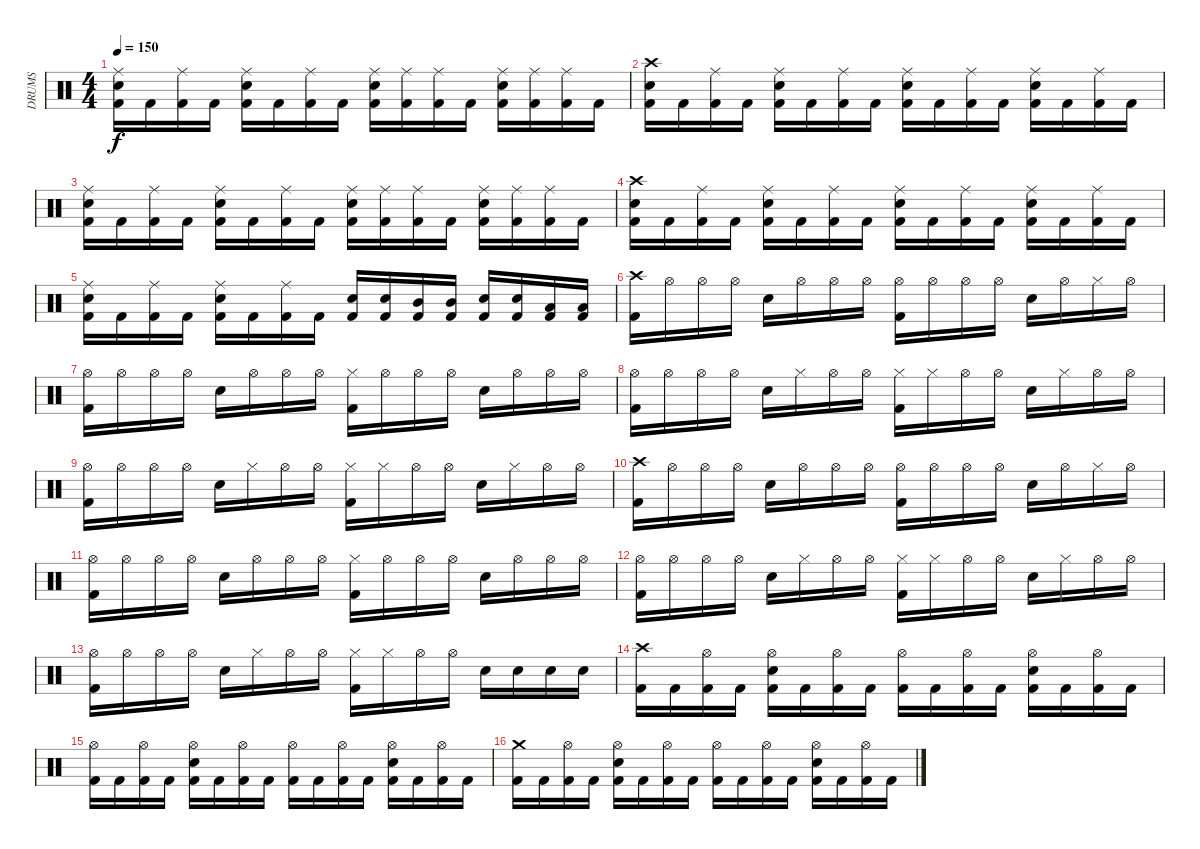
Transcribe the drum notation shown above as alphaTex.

\track ("DRUMS" "DRUMS") {instrument percussion}
\staff {score}
\articulation defaults
\ts (4 4)
\tempo 150
\clef neutral
\ks c
("Kick (hit) 2" "Snare (hit) 2" "Ride (middle)").16{dy f} "Kick (hit) 2".16 ("Kick (hit) 2" "Ride (middle)").16 "Kick (hit) 2".16 ("Kick (hit) 2" "Snare (hit) 2" "Ride (middle)").16 "Kick (hit) 2".16 ("Kick (hit) 2" "Ride (middle)").16 "Kick (hit) 2".16 ("Kick (hit) 2" "Snare (hit) 2" "Ride (middle)").16 ("Kick (hit) 2" "Ride (middle)").16 ("Kick (hit) 2" "Ride (middle)").16 "Kick (hit) 2".16 ("Kick (hit) 2" "Snare (hit) 2" "Ride (middle)").16 ("Kick (hit) 2" "Ride (middle)").16 ("Kick (hit) 2" "Ride (middle)").16 "Kick (hit) 2".16 |
("Kick (hit) 2" "Snare (hit) 2" "Crash high (hit)").16 "Kick (hit) 2".16 ("Kick (hit) 2" "Ride (middle)").16 "Kick (hit) 2".16 ("Kick (hit) 2" "Snare (hit) 2" "Ride (middle)").16 "Kick (hit) 2".16 ("Kick (hit) 2" "Ride (middle)").16 "Kick (hit) 2".16 ("Kick (hit) 2" "Snare (hit) 2" "Ride (middle)").16 "Kick (hit) 2".16 ("Kick (hit) 2" "Ride (middle)").16 "Kick (hit) 2".16 ("Kick (hit) 2" "Snare (hit) 2" "Ride (middle)").16 "Kick (hit) 2".16 ("Kick (hit) 2" "Ride (middle)").16 "Kick (hit) 2".16 |
("Kick (hit) 2" "Snare (hit) 2" "Ride (middle)").16 "Kick (hit) 2".16 ("Kick (hit) 2" "Ride (middle)").16 "Kick (hit) 2".16 ("Kick (hit) 2" "Snare (hit) 2" "Ride (middle)").16 "Kick (hit) 2".16 ("Kick (hit) 2" "Ride (middle)").16 "Kick (hit) 2".16 ("Kick (hit) 2" "Snare (hit) 2" "Ride (middle)").16 ("Kick (hit) 2" "Ride (middle)").16 ("Kick (hit) 2" "Ride (middle)").16 "Kick (hit) 2".16 ("Kick (hit) 2" "Snare (hit) 2" "Ride (middle)").16 ("Kick (hit) 2" "Ride (middle)").16 ("Kick (hit) 2" "Ride (middle)").16 "Kick (hit) 2".16 |
("Kick (hit) 2" "Snare (hit) 2" "Crash high (hit)").16 "Kick (hit) 2".16 ("Kick (hit) 2" "Ride (middle)").16 "Kick (hit) 2".16 ("Kick (hit) 2" "Snare (hit) 2" "Ride (middle)").16 "Kick (hit) 2".16 ("Kick (hit) 2" "Ride (middle)").16 "Kick (hit) 2".16 ("Kick (hit) 2" "Snare (hit) 2" "Ride (middle)").16 "Kick (hit) 2".16 ("Kick (hit) 2" "Ride (middle)").16 "Kick (hit) 2".16 ("Kick (hit) 2" "Snare (hit) 2" "Ride (middle)").16 "Kick (hit) 2".16 ("Kick (hit) 2" "Ride (middle)").16 "Kick (hit) 2".16 |
("Kick (hit) 2" "Snare (hit) 2" "Ride (middle)").16 "Kick (hit) 2".16 ("Kick (hit) 2" "Ride (middle)").16 "Kick (hit) 2".16 ("Kick (hit) 2" "Snare (hit) 2" "Ride (middle)").16 "Kick (hit) 2".16 ("Kick (hit) 2" "Ride (middle)").16 "Kick (hit) 2".16 ("Kick (hit) 2" "Snare (hit) 2").16 ("Kick (hit) 2" "Snare (hit) 2").16 ("Kick (hit) 2" "Mid Tom (hit)").16 ("Kick (hit) 2" "Mid Tom (hit)").16 ("Kick (hit) 2" "Snare (hit) 2").16 ("Kick (hit) 2" "Snare (hit) 2").16 ("Kick (hit) 2" "Low Tom (hit)").16 ("Kick (hit) 2" "Low Tom (hit)").16 |
("Kick (hit) 2" "Crash high (hit)").16 "Hi-Hat (open)".16 "Hi-Hat (open)".16 "Hi-Hat (open)".16 "Snare (hit) 2".16 "Hi-Hat (open)".16 "Hi-Hat (open)".16 "Hi-Hat (open)".16 ("Kick (hit) 2" "Hi-Hat (open)").16 "Hi-Hat (open)".16 "Hi-Hat (open)".16 "Hi-Hat (open)".16 "Snare (hit) 2".16 "Hi-Hat (open)".16 "Hi-Hat (closed)".16 "Hi-Hat (open)".16 |
("Kick (hit) 2" "Hi-Hat (open)").16 "Hi-Hat (open)".16 "Hi-Hat (open)".16 "Hi-Hat (open)".16 "Snare (hit) 2".16 "Hi-Hat (open)".16 "Hi-Hat (open)".16 "Hi-Hat (open)".16 ("Kick (hit) 2" "Hi-Hat (closed)").16 "Hi-Hat (open)".16 "Hi-Hat (open)".16 "Hi-Hat (open)".16 "Snare (hit) 2".16 "Hi-Hat (open)".16 "Hi-Hat (open)".16 "Hi-Hat (open)".16 |
("Kick (hit) 2" "Hi-Hat (open)").16 "Hi-Hat (open)".16 "Hi-Hat (open)".16 "Hi-Hat (open)".16 "Snare (hit) 2".16 "Hi-Hat (closed)".16 "Hi-Hat (open)".16 "Hi-Hat (open)".16 ("Kick (hit) 2" "Hi-Hat (closed)").16 "Hi-Hat (closed)".16 "Hi-Hat (open)".16 "Hi-Hat (open)".16 "Snare (hit) 2".16 "Hi-Hat (closed)".16 "Hi-Hat (open)".16 "Hi-Hat (open)".16 |
("Kick (hit) 2" "Hi-Hat (open)").16 "Hi-Hat (open)".16 "Hi-Hat (open)".16 "Hi-Hat (open)".16 "Snare (hit) 2".16 "Hi-Hat (closed)".16 "Hi-Hat (open)".16 "Hi-Hat (open)".16 ("Kick (hit) 2" "Hi-Hat (closed)").16 "Hi-Hat (closed)".16 "Hi-Hat (open)".16 "Hi-Hat (open)".16 "Snare (hit) 2".16 "Hi-Hat (closed)".16 "Hi-Hat (open)".16 "Hi-Hat (open)".16 |
("Kick (hit) 2" "Crash high (hit)").16 "Hi-Hat (open)".16 "Hi-Hat (open)".16 "Hi-Hat (open)".16 "Snare (hit) 2".16 "Hi-Hat (open)".16 "Hi-Hat (open)".16 "Hi-Hat (open)".16 ("Kick (hit) 2" "Hi-Hat (open)").16 "Hi-Hat (open)".16 "Hi-Hat (open)".16 "Hi-Hat (open)".16 "Snare (hit) 2".16 "Hi-Hat (open)".16 "Hi-Hat (closed)".16 "Hi-Hat (open)".16 |
("Kick (hit) 2" "Hi-Hat (open)").16 "Hi-Hat (open)".16 "Hi-Hat (open)".16 "Hi-Hat (open)".16 "Snare (hit) 2".16 "Hi-Hat (open)".16 "Hi-Hat (open)".16 "Hi-Hat (open)".16 ("Kick (hit) 2" "Hi-Hat (closed)").16 "Hi-Hat (open)".16 "Hi-Hat (open)".16 "Hi-Hat (open)".16 "Snare (hit) 2".16 "Hi-Hat (open)".16 "Hi-Hat (open)".16 "Hi-Hat (open)".16 |
("Kick (hit) 2" "Hi-Hat (open)").16 "Hi-Hat (open)".16 "Hi-Hat (open)".16 "Hi-Hat (open)".16 "Snare (hit) 2".16 "Hi-Hat (closed)".16 "Hi-Hat (open)".16 "Hi-Hat (open)".16 ("Kick (hit) 2" "Hi-Hat (closed)").16 "Hi-Hat (closed)".16 "Hi-Hat (open)".16 "Hi-Hat (open)".16 "Snare (hit) 2".16 "Hi-Hat (closed)".16 "Hi-Hat (open)".16 "Hi-Hat (open)".16 |
("Kick (hit) 2" "Hi-Hat (open)").16 "Hi-Hat (open)".16 "Hi-Hat (open)".16 "Hi-Hat (open)".16 "Snare (hit) 2".16 "Hi-Hat (closed)".16 "Hi-Hat (open)".16 "Hi-Hat (open)".16 ("Kick (hit) 2" "Hi-Hat (closed)").16 "Hi-Hat (closed)".16 "Hi-Hat (open)".16 "Hi-Hat (open)".16 "Snare (hit) 2".16 "Snare (hit) 2".16 "Snare (hit) 2".16 "Snare (hit) 2".16 |
("Kick (hit) 2" "Crash high (hit)").16 "Kick (hit) 2".16 ("Kick (hit) 2" "Hi-Hat (open)").16 "Kick (hit) 2".16 ("Kick (hit) 2" "Snare (hit) 2" "Hi-Hat (open)").16 "Kick (hit) 2".16 ("Kick (hit) 2" "Hi-Hat (open)").16 "Kick (hit) 2".16 ("Kick (hit) 2" "Hi-Hat (open)").16 "Kick (hit) 2".16 ("Kick (hit) 2" "Hi-Hat (open)").16 "Kick (hit) 2".16 ("Kick (hit) 2" "Snare (hit) 2" "Hi-Hat (open)").16 "Kick (hit) 2".16 ("Kick (hit) 2" "Hi-Hat (open)").16 "Kick (hit) 2".16 |
("Kick (hit) 2" "Hi-Hat (open)").16 "Kick (hit) 2".16 ("Kick (hit) 2" "Hi-Hat (open)").16 "Kick (hit) 2".16 ("Kick (hit) 2" "Snare (hit) 2" "Hi-Hat (open)").16 "Kick (hit) 2".16 ("Kick (hit) 2" "Hi-Hat (open)").16 "Kick (hit) 2".16 ("Kick (hit) 2" "Hi-Hat (open)").16 "Kick (hit) 2".16 ("Kick (hit) 2" "Hi-Hat (open)").16 "Kick (hit) 2".16 ("Kick (hit) 2" "Snare (hit) 2" "Hi-Hat (open)").16 "Kick (hit) 2".16 ("Kick (hit) 2" "Hi-Hat (open)").16 "Kick (hit) 2".16 |
("Kick (hit) 2" "Crash medium (hit)").16 "Kick (hit) 2".16 ("Kick (hit) 2" "Hi-Hat (open)").16 "Kick (hit) 2".16 ("Kick (hit) 2" "Snare (hit) 2" "Hi-Hat (open)").16 "Kick (hit) 2".16 ("Kick (hit) 2" "Hi-Hat (open)").16 "Kick (hit) 2".16 ("Kick (hit) 2" "Hi-Hat (open)").16 "Kick (hit) 2".16 ("Kick (hit) 2" "Hi-Hat (open)").16 "Kick (hit) 2".16 ("Kick (hit) 2" "Snare (hit) 2" "Hi-Hat (open)").16 "Kick (hit) 2".16 ("Kick (hit) 2" "Hi-Hat (open)").16 "Kick (hit) 2".16
